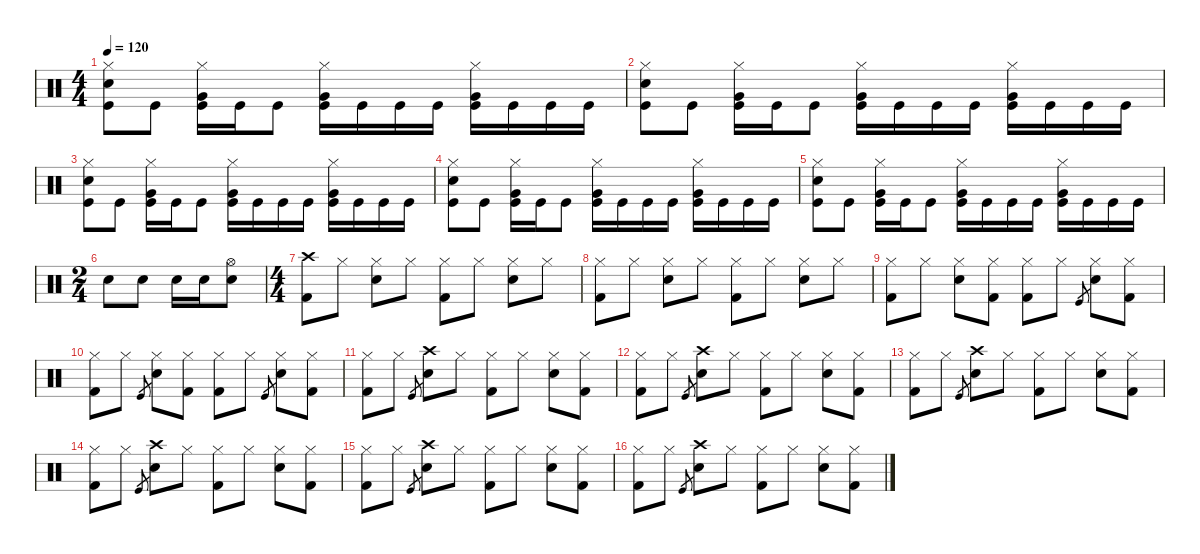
\defaultSystemsLayout 4
\hideDynamics
\bracketExtendMode nobrackets
\singleTrackTrackNamePolicy hidden
\multiTrackTrackNamePolicy hidden
\otherSystemsTrackNameOrientation horizontal
\track ("Ulrich" "drm.") {instrument percussion}
\staff {score}
\articulation defaults
\ts (4 4)
\tempo 120
\clef neutral
\ks c
("Hi-Hat (closed)" "Kick (hit)" "Snare (hit) 2").8{dy f beam Down} "Kick (hit)".8{dy fff beam Down} ("Hi-Hat (closed)" "Kick (hit)" "Very Low Tom (hit)").16{dy f beam Down} "Kick (hit)".16{dy fff beam Down} "Kick (hit)".8{beam Down} ("Hi-Hat (closed)" "Kick (hit)" "Very Low Tom (hit)").16{dy f beam Down} "Kick (hit)".16{dy fff beam Down} "Kick (hit)".16{beam Down} "Kick (hit)".16{beam Down} ("Hi-Hat (closed)" "Kick (hit)" "Very Low Tom (hit)").16{dy f beam Down} "Kick (hit)".16{dy fff beam Down} "Kick (hit)".16{beam Down} "Kick (hit)".16{beam Down} |
("Hi-Hat (closed)" "Kick (hit)" "Snare (hit) 2").8{dy f beam Down} "Kick (hit)".8{dy fff beam Down} ("Hi-Hat (closed)" "Kick (hit)" "Very Low Tom (hit)").16{dy f beam Down} "Kick (hit)".16{dy fff beam Down} "Kick (hit)".8{beam Down} ("Hi-Hat (closed)" "Kick (hit)" "Very Low Tom (hit)").16{dy f beam Down} "Kick (hit)".16{dy fff beam Down} "Kick (hit)".16{beam Down} "Kick (hit)".16{beam Down} ("Hi-Hat (closed)" "Kick (hit)" "Very Low Tom (hit)").16{dy f beam Down} "Kick (hit)".16{dy fff beam Down} "Kick (hit)".16{beam Down} "Kick (hit)".16{beam Down} |
("Hi-Hat (closed)" "Kick (hit)" "Snare (hit) 2").8{dy f beam Down} "Kick (hit)".8{dy fff beam Down} ("Hi-Hat (closed)" "Kick (hit)" "Very Low Tom (hit)").16{dy f beam Down} "Kick (hit)".16{dy fff beam Down} "Kick (hit)".8{beam Down} ("Hi-Hat (closed)" "Kick (hit)" "Very Low Tom (hit)").16{dy f beam Down} "Kick (hit)".16{dy fff beam Down} "Kick (hit)".16{beam Down} "Kick (hit)".16{beam Down} ("Hi-Hat (closed)" "Kick (hit)" "Very Low Tom (hit)").16{dy f beam Down} "Kick (hit)".16{dy fff beam Down} "Kick (hit)".16{beam Down} "Kick (hit)".16{beam Down} |
("Hi-Hat (closed)" "Kick (hit)" "Snare (hit) 2").8{dy f beam Down} "Kick (hit)".8{dy fff beam Down} ("Hi-Hat (closed)" "Kick (hit)" "Very Low Tom (hit)").16{dy f beam Down} "Kick (hit)".16{dy fff beam Down} "Kick (hit)".8{beam Down} ("Hi-Hat (closed)" "Kick (hit)" "Very Low Tom (hit)").16{dy f beam Down} "Kick (hit)".16{dy fff beam Down} "Kick (hit)".16{beam Down} "Kick (hit)".16{beam Down} ("Hi-Hat (closed)" "Kick (hit)" "Very Low Tom (hit)").16{dy f beam Down} "Kick (hit)".16{dy fff beam Down} "Kick (hit)".16{beam Down} "Kick (hit)".16{beam Down} |
("Hi-Hat (closed)" "Kick (hit)" "Snare (hit) 2").8{dy f beam Down} "Kick (hit)".8{dy fff beam Down} ("Hi-Hat (closed)" "Kick (hit)" "Very Low Tom (hit)").16{dy f beam Down} "Kick (hit)".16{dy fff beam Down} "Kick (hit)".8{beam Down} ("Hi-Hat (closed)" "Kick (hit)" "Very Low Tom (hit)").16{dy f beam Down} "Kick (hit)".16{dy fff beam Down} "Kick (hit)".16{beam Down} "Kick (hit)".16{beam Down} ("Hi-Hat (closed)" "Kick (hit)" "Very Low Tom (hit)").16{dy f beam Down} "Kick (hit)".16{dy fff beam Down} "Kick (hit)".16{beam Down} "Kick (hit)".16{beam Down} |
\ts (2 4)
"Snare (hit) 2".8{dy f beam Down} "Snare (hit) 2".8{beam Down} "Snare (hit) 2".16{beam Down} "Snare (hit) 2".16{beam Down} ("Hi-Hat (open)" "Snare (hit) 2").8{beam Down} |
\ts (4 4)
("Crash high (hit)" "Kick (hit) 2").8{beam Down} "Hi-Hat (closed)".8{beam Down} ("Hi-Hat (closed)" "Snare (hit) 2").8{beam Down} "Hi-Hat (closed)".8{beam Down} ("Hi-Hat (closed)" "Kick (hit) 2").8{beam Down} "Hi-Hat (closed)".8{beam Down} ("Hi-Hat (closed)" "Snare (hit) 2").8{beam Down} "Hi-Hat (closed)".8{beam Down} |
("Hi-Hat (closed)" "Kick (hit) 2").8{beam Down} "Hi-Hat (closed)".8{beam Down} ("Hi-Hat (closed)" "Snare (hit) 2").8{beam Down} "Hi-Hat (closed)".8{beam Down} ("Hi-Hat (closed)" "Kick (hit) 2").8{beam Down} "Hi-Hat (closed)".8{beam Down} ("Hi-Hat (closed)" "Snare (hit) 2").8{beam Down} "Hi-Hat (closed)".8{beam Down} |
("Hi-Hat (closed)" "Kick (hit) 2").8{beam Down} "Hi-Hat (closed)".8{beam Down} ("Hi-Hat (closed)" "Snare (hit) 2").8{beam Down} ("Hi-Hat (closed)" "Kick (hit) 2").8{beam Down} ("Hi-Hat (closed)" "Kick (hit) 2").8{beam Down} "Hi-Hat (closed)".8{beam Down} "Kick (hit)".8{gr dy ff beam Up} ("Hi-Hat (closed)" "Snare (hit) 2").8{dy f beam Down} ("Hi-Hat (closed)" "Kick (hit) 2").8{beam Down} |
("Hi-Hat (closed)" "Kick (hit) 2").8{beam Down} "Hi-Hat (closed)".8{beam Down} "Kick (hit)".8{gr dy ff beam Up} ("Hi-Hat (closed)" "Snare (hit) 2").8{dy f beam Down} ("Hi-Hat (closed)" "Kick (hit) 2").8{beam Down} ("Hi-Hat (closed)" "Kick (hit) 2").8{beam Down} "Hi-Hat (closed)".8{beam Down} "Kick (hit)".8{gr dy ff beam Up} ("Hi-Hat (closed)" "Snare (hit) 2").8{dy f beam Down} ("Hi-Hat (closed)" "Kick (hit) 2").8{beam Down} |
("Hi-Hat (closed)" "Kick (hit) 2").8{beam Down} "Hi-Hat (closed)".8{beam Down} "Kick (hit)".8{gr dy ff beam Up} ("Crash high (hit)" "Snare (hit) 2").8{dy f beam Down} "Hi-Hat (closed)".8{beam Down} ("Hi-Hat (closed)" "Kick (hit) 2").8{beam Down} "Hi-Hat (closed)".8{beam Down} ("Hi-Hat (closed)" "Snare (hit) 2").8{beam Down} ("Hi-Hat (closed)" "Kick (hit) 2").8{beam Down} |
("Hi-Hat (closed)" "Kick (hit) 2").8{beam Down} "Hi-Hat (closed)".8{beam Down} "Kick (hit)".8{gr dy ff beam Up} ("Crash high (hit)" "Snare (hit) 2").8{dy f beam Down} "Hi-Hat (closed)".8{beam Down} ("Hi-Hat (closed)" "Kick (hit) 2").8{beam Down} "Hi-Hat (closed)".8{beam Down} ("Hi-Hat (closed)" "Snare (hit) 2").8{beam Down} ("Hi-Hat (closed)" "Kick (hit) 2").8{beam Down} |
("Hi-Hat (closed)" "Kick (hit) 2").8{beam Down} "Hi-Hat (closed)".8{beam Down} "Kick (hit)".8{gr dy ff beam Up} ("Crash high (hit)" "Snare (hit) 2").8{dy f beam Down} "Hi-Hat (closed)".8{beam Down} ("Hi-Hat (closed)" "Kick (hit) 2").8{beam Down} "Hi-Hat (closed)".8{beam Down} ("Hi-Hat (closed)" "Snare (hit) 2").8{beam Down} ("Hi-Hat (closed)" "Kick (hit) 2").8{beam Down} |
("Hi-Hat (closed)" "Kick (hit) 2").8{beam Down} "Hi-Hat (closed)".8{beam Down} "Kick (hit)".8{gr dy ff beam Up} ("Crash high (hit)" "Snare (hit) 2").8{dy f beam Down} "Hi-Hat (closed)".8{beam Down} ("Hi-Hat (closed)" "Kick (hit) 2").8{beam Down} "Hi-Hat (closed)".8{beam Down} ("Hi-Hat (closed)" "Snare (hit) 2").8{beam Down} ("Hi-Hat (closed)" "Kick (hit) 2").8{beam Down} |
("Hi-Hat (closed)" "Kick (hit) 2").8{beam Down} "Hi-Hat (closed)".8{beam Down} "Kick (hit)".8{gr dy ff beam Up} ("Crash high (hit)" "Snare (hit) 2").8{dy f beam Down} "Hi-Hat (closed)".8{beam Down} ("Hi-Hat (closed)" "Kick (hit) 2").8{beam Down} "Hi-Hat (closed)".8{beam Down} ("Hi-Hat (closed)" "Snare (hit) 2").8{beam Down} ("Hi-Hat (closed)" "Kick (hit) 2").8{beam Down} |
("Hi-Hat (closed)" "Kick (hit) 2").8{beam Down} "Hi-Hat (closed)".8{beam Down} "Kick (hit)".8{gr dy ff beam Up} ("Crash high (hit)" "Snare (hit) 2").8{dy f beam Down} "Hi-Hat (closed)".8{beam Down} ("Hi-Hat (closed)" "Kick (hit) 2").8{beam Down} "Hi-Hat (closed)".8{beam Down} ("Hi-Hat (closed)" "Snare (hit) 2").8{beam Down} ("Hi-Hat (closed)" "Kick (hit) 2").8{beam Down}
